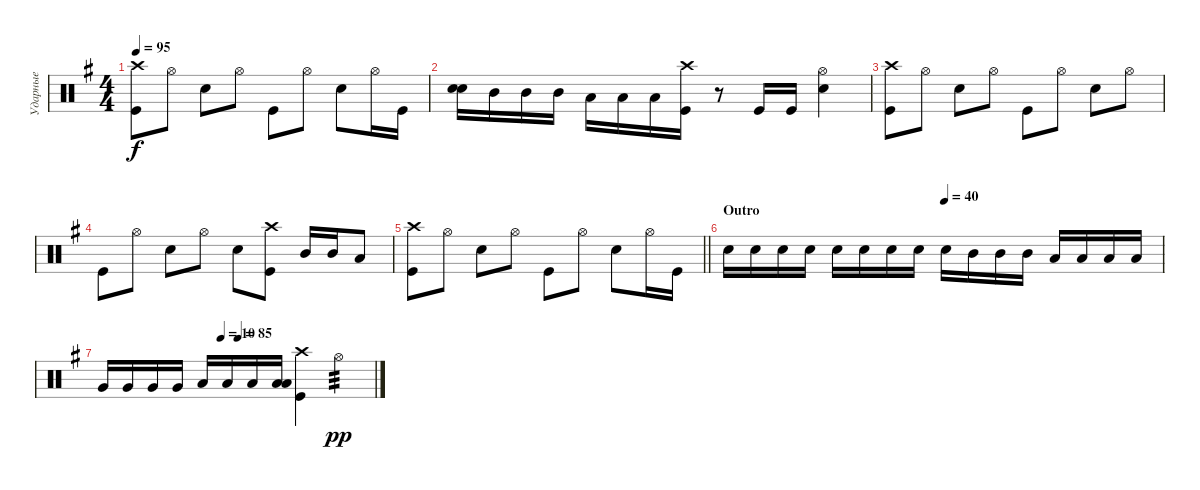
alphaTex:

\track ("Ударные" "Ударные") {instrument percussion}
\staff {score}
\articulation defaults
\ts (4 4)
\tempo 95
\clef neutral
\ks eminor
("Kick (hit)" "Crash high (hit)").8{dy f} "Hi-Hat (open)".8 "Snare (hit) 2".8 "Hi-Hat (open)".8 "Kick (hit)".8 "Hi-Hat (open)".8 "Snare (hit) 2".8 "Hi-Hat (open)".16 "Kick (hit)".16 |
("Snare (hit) 2" "Snare (hit) 2").16{bd 120} "Mid Tom (hit)".16 "Mid Tom (hit)".16 "Mid Tom (hit)".16 "Low Tom (hit)".16 "Low Tom (hit)".16 "Low Tom (hit)".16 ("Kick (hit)" "Crash high (hit)").16 r.8 "Kick (hit)".16 "Kick (hit)".16 ("Snare (hit) 2" "Hi-Hat (open)").4 |
("Kick (hit)" "Crash high (hit)").8 "Hi-Hat (open)".8 "Snare (hit) 2".8 "Hi-Hat (open)".8 "Kick (hit)".8 "Hi-Hat (open)".8 "Snare (hit) 2".8 "Hi-Hat (open)".8 |
"Kick (hit)".8 "Hi-Hat (open)".8 "Snare (hit) 2".8 "Hi-Hat (open)".8 "Snare (hit) 2".8 ("Kick (hit)" "Crash high (hit)").8 "Mid Tom (hit)".16 "Mid Tom (hit)".16 "Low Tom (hit)".8 |
\barLineRight lightlight
("Kick (hit)" "Crash high (hit)").8 "Hi-Hat (open)".8 "Snare (hit) 2".8 "Hi-Hat (open)".8 "Kick (hit)".8 "Hi-Hat (open)".8 "Snare (hit) 2".8 "Hi-Hat (open)".16 "Kick (hit)".16 |
\section ("" "Outro")
\tempo (40 0.5)
"Snare (hit) 2".16 "Snare (hit) 2".16 "Snare (hit) 2".16 "Snare (hit) 2".16 "Snare (hit) 2".16 "Snare (hit) 2".16 "Snare (hit) 2".16 "Snare (hit) 2".16 "Snare (hit) 2".16 "Mid Tom (hit)".16 "Mid Tom (hit)".16 "Mid Tom (hit)".16 "Low Tom (hit)".16 "Low Tom (hit)".16 "Low Tom (hit)".16 "Low Tom (hit)".16 |
\tempo (10 0.4375)
\tempo (85 0.5)
"Very Low Tom (hit)".16 "Very Low Tom (hit)".16 "Very Low Tom (hit)".16 "Very Low Tom (hit)".16 "Low Floor Tom (hit)".16 "Low Floor Tom (hit)".16 "Low Floor Tom (hit)".16 ("Low Floor Tom (hit)" "Low Floor Tom (hit)").16{bd 30} ("Kick (hit)" "Crash high (hit)").4 "Hi-Hat (open)".4{tp 3 dy pp}
